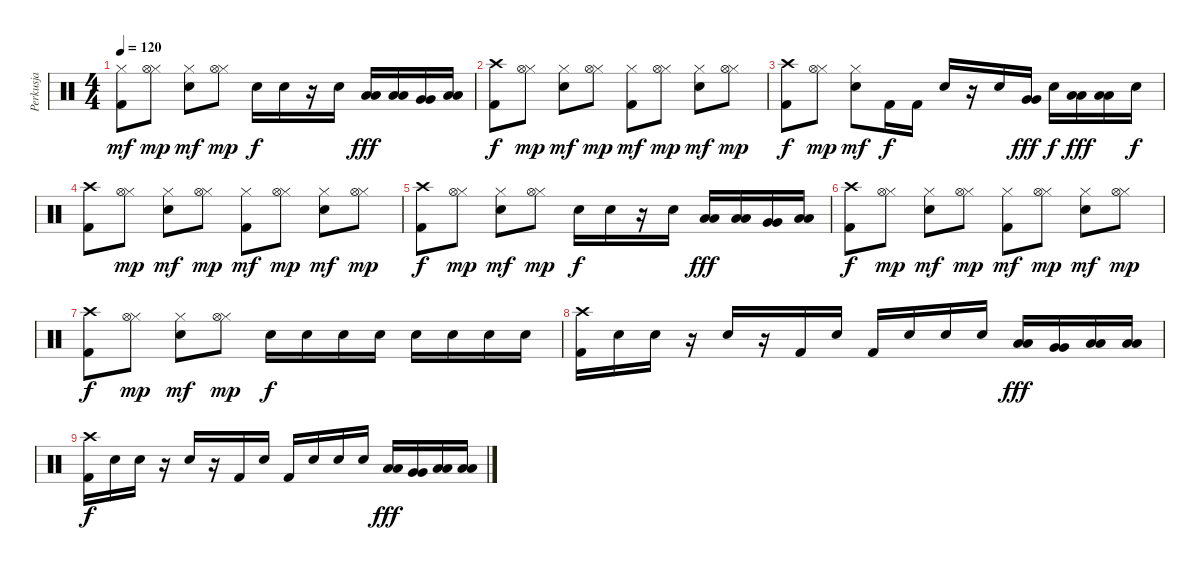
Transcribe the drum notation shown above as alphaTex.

\track ("Perkusja" "Perkusja") {instrument percussion}
\staff {score}
\articulation defaults
\ts (4 4)
\tempo 120
\clef neutral
\ks c
("Kick (hit) 2" "Hi-Hat (closed)").8{dy mf} ("Hi-Hat (closed)" "Hi-Hat (open)").8{dy mp} ("Electric Snare (hit)" "Hi-Hat (closed)").8{dy mf} ("Hi-Hat (closed)" "Hi-Hat (open)").8{dy mp} "Electric Snare (hit)".16{dy f} "Electric Snare (hit)".16 r.16 "Electric Snare (hit)".16 ("Low Tom (hit)" "Low Tom (hit)").16{dy fff} ("Low Tom (hit)" "Low Tom (hit)").16 ("Very Low Tom (hit)" "Very Low Tom (hit)").16 ("Low Floor Tom (hit)" "Low Floor Tom (hit)").16 |
("Kick (hit) 2" "Crash high (hit)").8{dy f volume 11} ("Hi-Hat (closed)" "Hi-Hat (open)").8{dy mp} ("Electric Snare (hit)" "Hi-Hat (closed)").8{dy mf} ("Hi-Hat (closed)" "Hi-Hat (open)").8{dy mp} ("Kick (hit) 2" "Hi-Hat (closed)").8{dy mf} ("Hi-Hat (closed)" "Hi-Hat (open)").8{dy mp} ("Electric Snare (hit)" "Hi-Hat (closed)").8{dy mf} ("Hi-Hat (closed)" "Hi-Hat (open)").8{dy mp} |
("Kick (hit) 2" "Crash high (hit)").8{dy f volume 10} ("Hi-Hat (closed)" "Hi-Hat (open)").8{dy mp} ("Electric Snare (hit)" "Hi-Hat (closed)").8{dy mf} "Kick (hit) 2".16{dy f} "Kick (hit) 2".16 "Electric Snare (hit)".16 r.16 "Electric Snare (hit)".16 ("Very Low Tom (hit)" "Very Low Tom (hit)").16{dy fff} "Electric Snare (hit)".16{dy f} ("Low Floor Tom (hit)" "Low Floor Tom (hit)").16{dy fff} ("Low Floor Tom (hit)" "Low Floor Tom (hit)").16 "Electric Snare (hit)".16{dy f} |
("Kick (hit) 2" "Crash high (hit)").8{volume 9} ("Hi-Hat (closed)" "Hi-Hat (open)").8{dy mp} ("Electric Snare (hit)" "Hi-Hat (closed)").8{dy mf} ("Hi-Hat (closed)" "Hi-Hat (open)").8{dy mp} ("Kick (hit) 2" "Hi-Hat (closed)").8{dy mf} ("Hi-Hat (closed)" "Hi-Hat (open)").8{dy mp} ("Electric Snare (hit)" "Hi-Hat (closed)").8{dy mf} ("Hi-Hat (closed)" "Hi-Hat (open)").8{dy mp} |
("Kick (hit) 2" "Crash high (hit)").8{dy f volume 8} ("Hi-Hat (closed)" "Hi-Hat (open)").8{dy mp} ("Electric Snare (hit)" "Hi-Hat (closed)").8{dy mf} ("Hi-Hat (closed)" "Hi-Hat (open)").8{dy mp} "Electric Snare (hit)".16{dy f} "Electric Snare (hit)".16 r.16 "Electric Snare (hit)".16 ("Low Tom (hit)" "Low Tom (hit)").16{dy fff} ("Low Tom (hit)" "Low Tom (hit)").16 ("Very Low Tom (hit)" "Very Low Tom (hit)").16 ("Low Floor Tom (hit)" "Low Floor Tom (hit)").16 |
("Kick (hit) 2" "Crash high (hit)").8{dy f volume 7} ("Hi-Hat (closed)" "Hi-Hat (open)").8{dy mp} ("Electric Snare (hit)" "Hi-Hat (closed)").8{dy mf} ("Hi-Hat (closed)" "Hi-Hat (open)").8{dy mp} ("Kick (hit) 2" "Hi-Hat (closed)").8{dy mf} ("Hi-Hat (closed)" "Hi-Hat (open)").8{dy mp} ("Electric Snare (hit)" "Hi-Hat (closed)").8{dy mf} ("Hi-Hat (closed)" "Hi-Hat (open)").8{dy mp} |
("Kick (hit) 2" "Crash high (hit)").8{dy f volume 6} ("Hi-Hat (closed)" "Hi-Hat (open)").8{dy mp} ("Electric Snare (hit)" "Hi-Hat (closed)").8{dy mf} ("Hi-Hat (closed)" "Hi-Hat (open)").8{dy mp} "Electric Snare (hit)".16{dy f} "Electric Snare (hit)".16 "Electric Snare (hit)".16 "Electric Snare (hit)".16 "Electric Snare (hit)".16 "Electric Snare (hit)".16 "Electric Snare (hit)".16 "Electric Snare (hit)".16 |
("Kick (hit) 2" "Crash high (hit)").16{volume 5} "Electric Snare (hit)".16 "Electric Snare (hit)".16 r.16 "Electric Snare (hit)".16 r.16 "Kick (hit) 2".16 "Electric Snare (hit)".16 "Kick (hit) 2".16{volume 3} "Electric Snare (hit)".16 "Electric Snare (hit)".16 "Electric Snare (hit)".16 ("Low Tom (hit)" "Low Tom (hit)").16{dy fff} ("Very Low Tom (hit)" "Very Low Tom (hit)").16 ("Low Floor Tom (hit)" "Low Floor Tom (hit)").16 ("Low Floor Tom (hit)" "Low Floor Tom (hit)").16 |
("Kick (hit) 2" "Crash high (hit)").16{dy f volume 2} "Electric Snare (hit)".16 "Electric Snare (hit)".16 r.16 "Electric Snare (hit)".16 r.16 "Kick (hit) 2".16 "Electric Snare (hit)".16 "Kick (hit) 2".16{volume 0} "Electric Snare (hit)".16 "Electric Snare (hit)".16 "Electric Snare (hit)".16 ("Low Tom (hit)" "Low Tom (hit)").16{dy fff} ("Very Low Tom (hit)" "Very Low Tom (hit)").16 ("Low Floor Tom (hit)" "Low Floor Tom (hit)").16 ("Low Floor Tom (hit)" "Low Floor Tom (hit)").16
